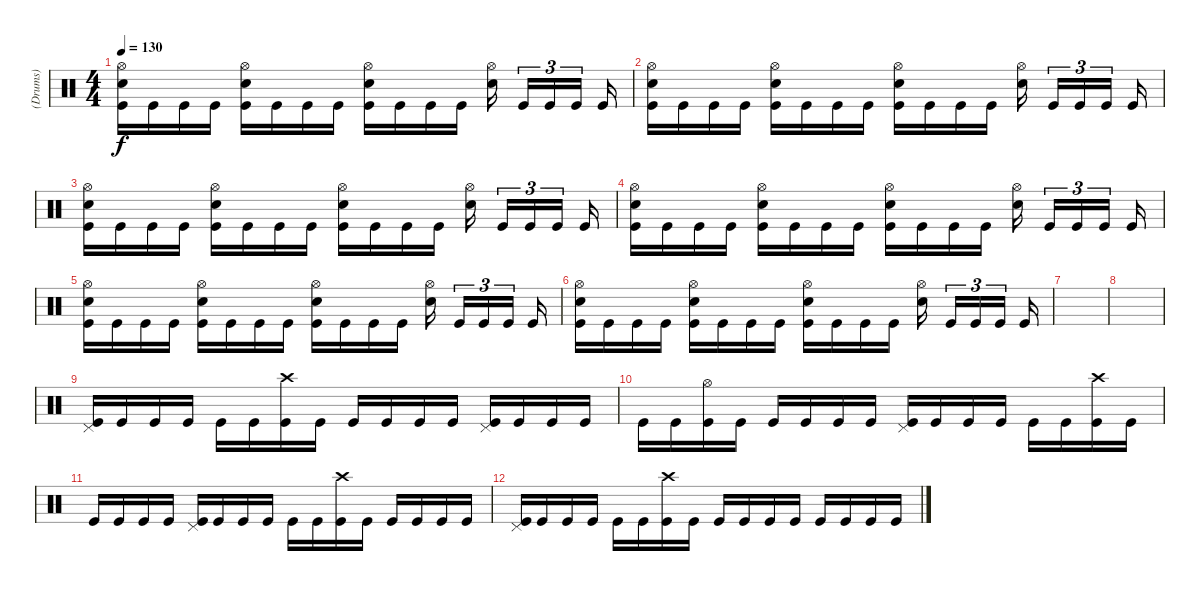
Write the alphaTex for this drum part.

\track ("(Drums)" "(Drums)") {instrument percussion}
\staff {score}
\articulation defaults
\ts (4 4)
\tempo 130
\clef neutral
\ks c
("Hi-Hat (open)" "Snare (hit) 2" "Kick (hit)").16{dy f} "Kick (hit)".16 "Kick (hit)".16 "Kick (hit)".16 ("Hi-Hat (open)" "Snare (hit) 2" "Kick (hit)").16 "Kick (hit)".16 "Kick (hit)".16 "Kick (hit)".16 ("Hi-Hat (open)" "Snare (hit) 2" "Kick (hit)").16 "Kick (hit)".16 "Kick (hit)".16 "Kick (hit)".16 ("Hi-Hat (open)" "Snare (hit) 2").16{beam splitsecondary} "Kick (hit)".16{tu (3 2)} "Kick (hit)".16{tu (3 2)} "Kick (hit)".16{tu (3 2) beam splitsecondary} "Kick (hit)".16 |
("Hi-Hat (open)" "Snare (hit) 2" "Kick (hit)").16 "Kick (hit)".16 "Kick (hit)".16 "Kick (hit)".16 ("Hi-Hat (open)" "Snare (hit) 2" "Kick (hit)").16 "Kick (hit)".16 "Kick (hit)".16 "Kick (hit)".16 ("Hi-Hat (open)" "Snare (hit) 2" "Kick (hit)").16 "Kick (hit)".16 "Kick (hit)".16 "Kick (hit)".16 ("Hi-Hat (open)" "Snare (hit) 2").16{beam splitsecondary} "Kick (hit)".16{tu (3 2)} "Kick (hit)".16{tu (3 2)} "Kick (hit)".16{tu (3 2) beam splitsecondary} "Kick (hit)".16 |
("Hi-Hat (open)" "Snare (hit) 2" "Kick (hit)").16 "Kick (hit)".16 "Kick (hit)".16 "Kick (hit)".16 ("Hi-Hat (open)" "Snare (hit) 2" "Kick (hit)").16 "Kick (hit)".16 "Kick (hit)".16 "Kick (hit)".16 ("Hi-Hat (open)" "Snare (hit) 2" "Kick (hit)").16 "Kick (hit)".16 "Kick (hit)".16 "Kick (hit)".16 ("Hi-Hat (open)" "Snare (hit) 2").16{beam splitsecondary} "Kick (hit)".16{tu (3 2)} "Kick (hit)".16{tu (3 2)} "Kick (hit)".16{tu (3 2) beam splitsecondary} "Kick (hit)".16 |
("Hi-Hat (open)" "Snare (hit) 2" "Kick (hit)").16 "Kick (hit)".16 "Kick (hit)".16 "Kick (hit)".16 ("Hi-Hat (open)" "Snare (hit) 2" "Kick (hit)").16 "Kick (hit)".16 "Kick (hit)".16 "Kick (hit)".16 ("Hi-Hat (open)" "Snare (hit) 2" "Kick (hit)").16 "Kick (hit)".16 "Kick (hit)".16 "Kick (hit)".16 ("Hi-Hat (open)" "Snare (hit) 2").16{beam splitsecondary} "Kick (hit)".16{tu (3 2)} "Kick (hit)".16{tu (3 2)} "Kick (hit)".16{tu (3 2) beam splitsecondary} "Kick (hit)".16 |
("Hi-Hat (open)" "Snare (hit) 2" "Kick (hit)").16 "Kick (hit)".16 "Kick (hit)".16 "Kick (hit)".16 ("Hi-Hat (open)" "Snare (hit) 2" "Kick (hit)").16 "Kick (hit)".16 "Kick (hit)".16 "Kick (hit)".16 ("Hi-Hat (open)" "Snare (hit) 2" "Kick (hit)").16 "Kick (hit)".16 "Kick (hit)".16 "Kick (hit)".16 ("Hi-Hat (open)" "Snare (hit) 2").16{beam splitsecondary} "Kick (hit)".16{tu (3 2)} "Kick (hit)".16{tu (3 2)} "Kick (hit)".16{tu (3 2) beam splitsecondary} "Kick (hit)".16 |
("Hi-Hat (open)" "Snare (hit) 2" "Kick (hit)").16 "Kick (hit)".16 "Kick (hit)".16 "Kick (hit)".16 ("Hi-Hat (open)" "Snare (hit) 2" "Kick (hit)").16 "Kick (hit)".16 "Kick (hit)".16 "Kick (hit)".16 ("Hi-Hat (open)" "Snare (hit) 2" "Kick (hit)").16 "Kick (hit)".16 "Kick (hit)".16 "Kick (hit)".16 ("Hi-Hat (open)" "Snare (hit) 2").16{beam splitsecondary} "Kick (hit)".16{tu (3 2)} "Kick (hit)".16{tu (3 2)} "Kick (hit)".16{tu (3 2) beam splitsecondary} "Kick (hit)".16 |
|
|
("Pedal Hi-Hat (hit)" "Kick (hit)").16 "Kick (hit)".16 "Kick (hit)".16 "Kick (hit)".16 "Kick (hit)".16 "Kick (hit)".16 ("Crash high (hit)" "Kick (hit)").16 "Kick (hit)".16 "Kick (hit)".16 "Kick (hit)".16 "Kick (hit)".16 "Kick (hit)".16 ("Pedal Hi-Hat (hit)" "Kick (hit)").16 "Kick (hit)".16 "Kick (hit)".16 "Kick (hit)".16 |
"Kick (hit)".16 "Kick (hit)".16 ("Hi-Hat (open)" "Kick (hit)").16 "Kick (hit)".16 "Kick (hit)".16 "Kick (hit)".16 "Kick (hit)".16 "Kick (hit)".16 ("Pedal Hi-Hat (hit)" "Kick (hit)").16 "Kick (hit)".16 "Kick (hit)".16 "Kick (hit)".16 "Kick (hit)".16 "Kick (hit)".16 ("Crash high (hit)" "Kick (hit)").16 "Kick (hit)".16 |
"Kick (hit)".16 "Kick (hit)".16 "Kick (hit)".16 "Kick (hit)".16 ("Pedal Hi-Hat (hit)" "Kick (hit)").16 "Kick (hit)".16 "Kick (hit)".16 "Kick (hit)".16 "Kick (hit)".16 "Kick (hit)".16 ("Crash high (hit)" "Kick (hit)").16 "Kick (hit)".16 "Kick (hit)".16 "Kick (hit)".16 "Kick (hit)".16 "Kick (hit)".16 |
("Pedal Hi-Hat (hit)" "Kick (hit)").16 "Kick (hit)".16 "Kick (hit)".16 "Kick (hit)".16 "Kick (hit)".16 "Kick (hit)".16 ("Crash high (hit)" "Kick (hit)").16 "Kick (hit)".16 "Kick (hit)".16 "Kick (hit)".16 "Kick (hit)".16 "Kick (hit)".16 "Kick (hit)".16 "Kick (hit)".16 "Kick (hit)".16 "Kick (hit)".16
